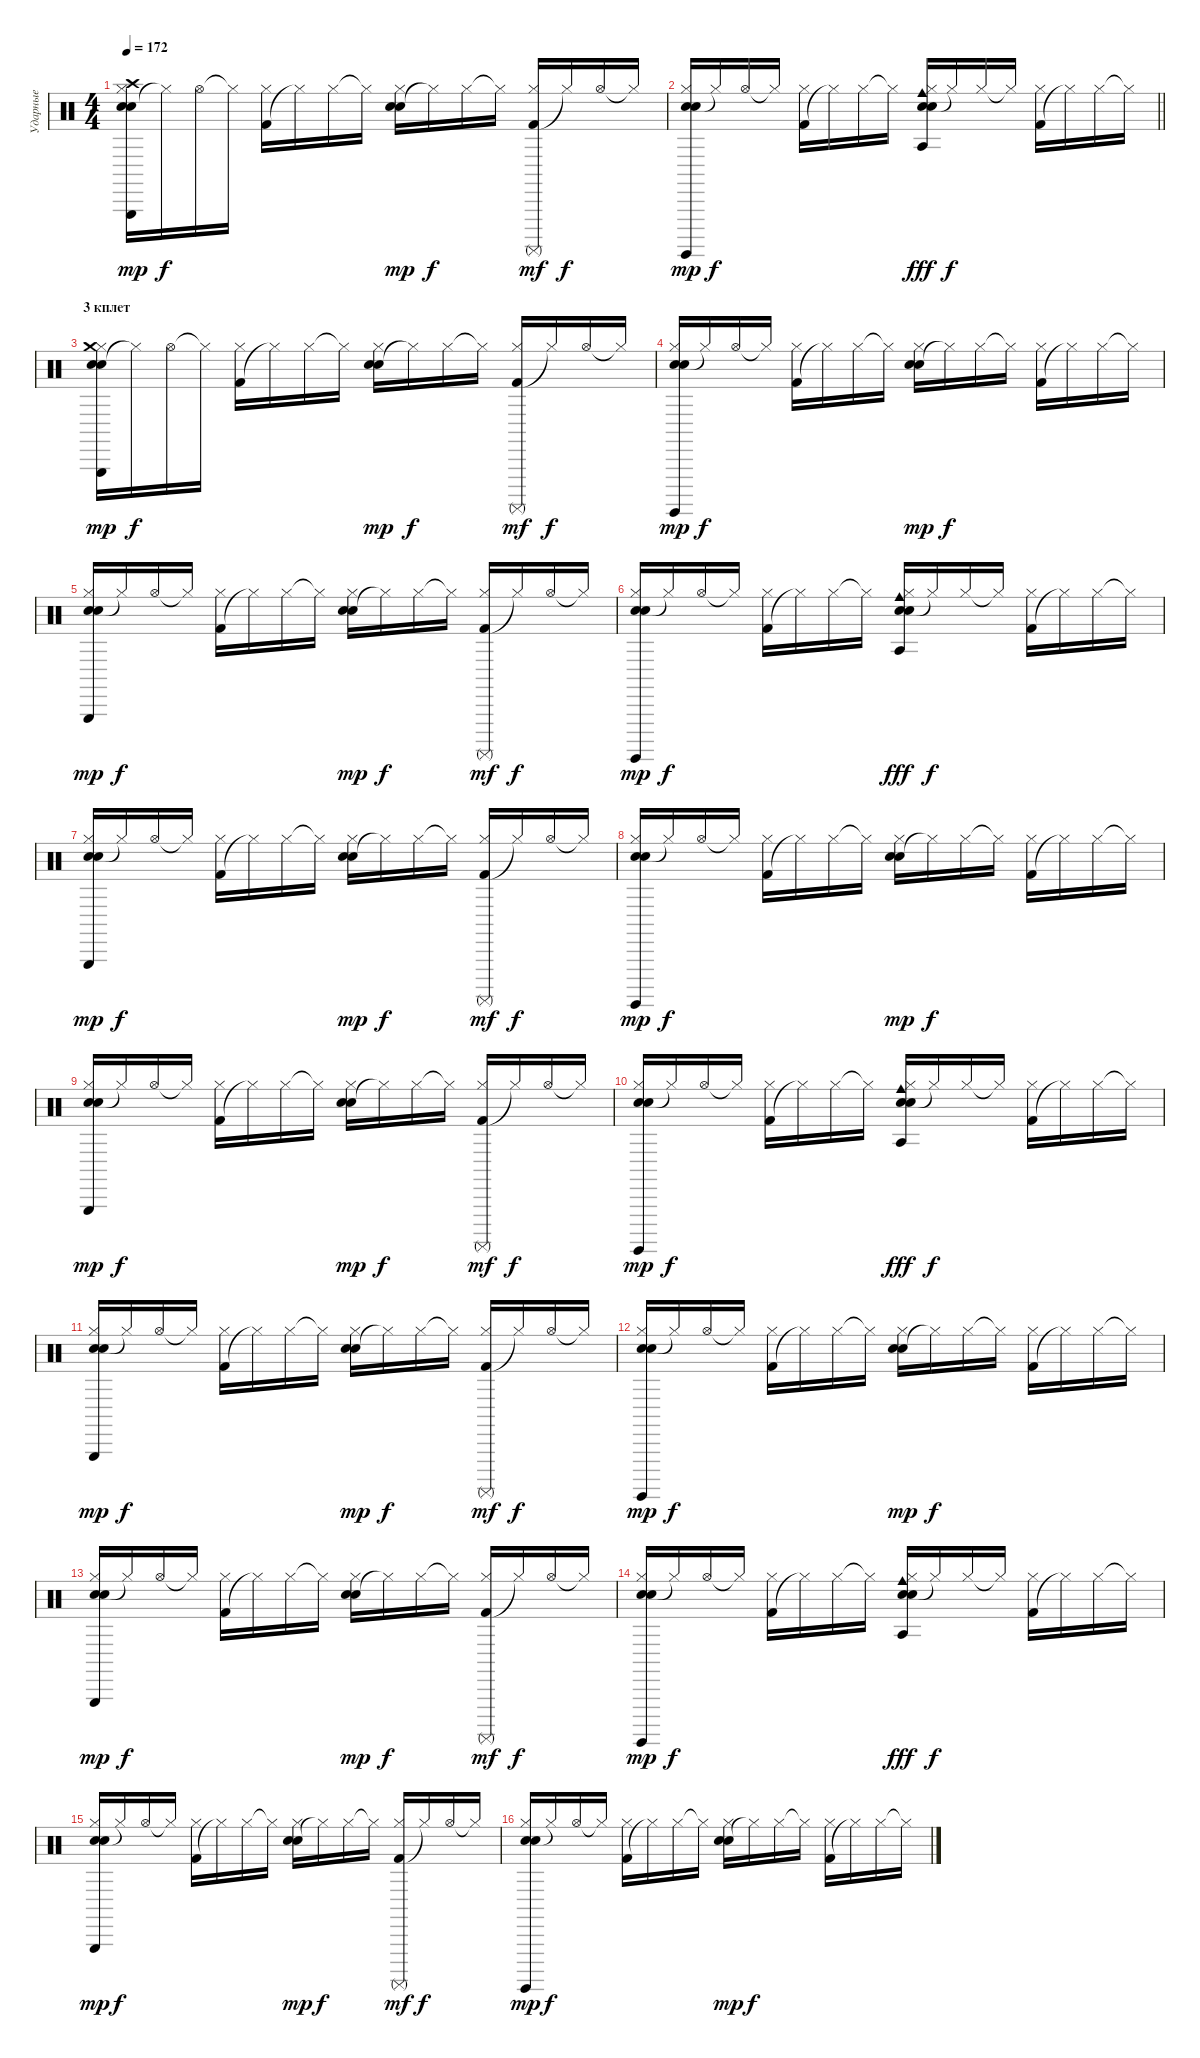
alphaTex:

\track ("Ударные" "Ударные") {instrument percussion}
\staff {score}
\articulation defaults
\ts (4 4)
\tempo 172
\clef neutral
\ks c
("Snare (hit) 2" "Electric Snare (hit)" "Hi-Hat (closed)" "Triangle (hit)" "Crash high (hit)").16{dy mp} "Hi-Hat (closed)"{t}.16{dy f} "Hi-Hat (open)".16 "Hi-Hat (closed)"{t}.16 ("Kick (hit) 2" "Hi-Hat (closed)").16 "Hi-Hat (closed)"{t}.16 "Hi-Hat (closed)".16 "Hi-Hat (closed)"{t}.16 ("Snare (hit) 2" "Electric Snare (hit)" "Hi-Hat (closed)").16{dy mp} "Hi-Hat (closed)"{t}.16{dy f} "Hi-Hat (closed)".16 "Hi-Hat (closed)"{t}.16 ("Kick (hit) 2" "Hi-Hat (closed)" "Surdo (mute)").16{dy mf} "Hi-Hat (closed)"{t}.16{dy f} "Hi-Hat (open)".16 "Hi-Hat (closed)"{t}.16 |
\barLineRight lightlight
("Snare (hit) 2" "Electric Snare (hit)" "Hi-Hat (closed)" "Surdo (hit)").16{dy mp} "Hi-Hat (closed)"{t}.16{dy f} "Hi-Hat (open)".16 "Hi-Hat (closed)"{t}.16 ("Kick (hit) 2" "Hi-Hat (closed)").16 "Hi-Hat (closed)"{t}.16 "Hi-Hat (closed)".16 "Hi-Hat (closed)"{t}.16 ("Snare (hit) 2" "Electric Snare (hit)" "Hi-Hat (closed)" "Cowbell medium (hit)" "Agogo tow (hit)").16{dy fff} "Hi-Hat (closed)"{t}.16{dy f} "Hi-Hat (closed)".16 "Hi-Hat (closed)"{t}.16 ("Kick (hit) 2" "Hi-Hat (closed)").16 "Hi-Hat (closed)"{t}.16 "Hi-Hat (closed)".16 "Hi-Hat (closed)"{t}.16 |
\section ("" "3 кплет")
("Snare (hit) 2" "Electric Snare (hit)" "Hi-Hat (closed)" "Triangle (hit)" "Crash medium (hit)").16{dy mp} "Hi-Hat (closed)"{t}.16{dy f} "Hi-Hat (open)".16 "Hi-Hat (closed)"{t}.16 ("Kick (hit) 2" "Hi-Hat (closed)").16 "Hi-Hat (closed)"{t}.16 "Hi-Hat (closed)".16 "Hi-Hat (closed)"{t}.16 ("Snare (hit) 2" "Electric Snare (hit)" "Hi-Hat (closed)").16{dy mp} "Hi-Hat (closed)"{t}.16{dy f} "Hi-Hat (closed)".16 "Hi-Hat (closed)"{t}.16 ("Kick (hit) 2" "Hi-Hat (closed)" "Surdo (mute)").16{dy mf} "Hi-Hat (closed)"{t}.16{dy f} "Hi-Hat (open)".16 "Hi-Hat (closed)"{t}.16 |
("Snare (hit) 2" "Electric Snare (hit)" "Hi-Hat (closed)" "Surdo (hit)").16{dy mp} "Hi-Hat (closed)"{t}.16{dy f} "Hi-Hat (open)".16 "Hi-Hat (closed)"{t}.16 ("Kick (hit) 2" "Hi-Hat (closed)").16 "Hi-Hat (closed)"{t}.16 "Hi-Hat (closed)".16 "Hi-Hat (closed)"{t}.16 ("Snare (hit) 2" "Electric Snare (hit)" "Hi-Hat (closed)").16{dy mp} "Hi-Hat (closed)"{t}.16{dy f} "Hi-Hat (closed)".16 "Hi-Hat (closed)"{t}.16 ("Kick (hit) 2" "Hi-Hat (closed)").16 "Hi-Hat (closed)"{t}.16 "Hi-Hat (closed)".16 "Hi-Hat (closed)"{t}.16 |
("Snare (hit) 2" "Electric Snare (hit)" "Hi-Hat (closed)" "Triangle (hit)").16{dy mp} "Hi-Hat (closed)"{t}.16{dy f} "Hi-Hat (open)".16 "Hi-Hat (closed)"{t}.16 ("Kick (hit) 2" "Hi-Hat (closed)").16 "Hi-Hat (closed)"{t}.16 "Hi-Hat (closed)".16 "Hi-Hat (closed)"{t}.16 ("Snare (hit) 2" "Electric Snare (hit)" "Hi-Hat (closed)").16{dy mp} "Hi-Hat (closed)"{t}.16{dy f} "Hi-Hat (closed)".16 "Hi-Hat (closed)"{t}.16 ("Kick (hit) 2" "Hi-Hat (closed)" "Surdo (mute)").16{dy mf} "Hi-Hat (closed)"{t}.16{dy f} "Hi-Hat (open)".16 "Hi-Hat (closed)"{t}.16 |
("Snare (hit) 2" "Electric Snare (hit)" "Hi-Hat (closed)" "Surdo (hit)").16{dy mp} "Hi-Hat (closed)"{t}.16{dy f} "Hi-Hat (open)".16 "Hi-Hat (closed)"{t}.16 ("Kick (hit) 2" "Hi-Hat (closed)").16 "Hi-Hat (closed)"{t}.16 "Hi-Hat (closed)".16 "Hi-Hat (closed)"{t}.16 ("Snare (hit) 2" "Electric Snare (hit)" "Hi-Hat (closed)" "Cowbell medium (hit)" "Agogo tow (hit)").16{dy fff} "Hi-Hat (closed)"{t}.16{dy f} "Hi-Hat (closed)".16 "Hi-Hat (closed)"{t}.16 ("Kick (hit) 2" "Hi-Hat (closed)").16 "Hi-Hat (closed)"{t}.16 "Hi-Hat (closed)".16 "Hi-Hat (closed)"{t}.16 |
("Snare (hit) 2" "Electric Snare (hit)" "Hi-Hat (closed)" "Triangle (hit)").16{dy mp} "Hi-Hat (closed)"{t}.16{dy f} "Hi-Hat (open)".16 "Hi-Hat (closed)"{t}.16 ("Kick (hit) 2" "Hi-Hat (closed)").16 "Hi-Hat (closed)"{t}.16 "Hi-Hat (closed)".16 "Hi-Hat (closed)"{t}.16 ("Snare (hit) 2" "Electric Snare (hit)" "Hi-Hat (closed)").16{dy mp} "Hi-Hat (closed)"{t}.16{dy f} "Hi-Hat (closed)".16 "Hi-Hat (closed)"{t}.16 ("Kick (hit) 2" "Hi-Hat (closed)" "Surdo (mute)").16{dy mf} "Hi-Hat (closed)"{t}.16{dy f} "Hi-Hat (open)".16 "Hi-Hat (closed)"{t}.16 |
("Snare (hit) 2" "Electric Snare (hit)" "Hi-Hat (closed)" "Surdo (hit)").16{dy mp} "Hi-Hat (closed)"{t}.16{dy f} "Hi-Hat (open)".16 "Hi-Hat (closed)"{t}.16 ("Kick (hit) 2" "Hi-Hat (closed)").16 "Hi-Hat (closed)"{t}.16 "Hi-Hat (closed)".16 "Hi-Hat (closed)"{t}.16 ("Snare (hit) 2" "Electric Snare (hit)" "Hi-Hat (closed)").16{dy mp} "Hi-Hat (closed)"{t}.16{dy f} "Hi-Hat (closed)".16 "Hi-Hat (closed)"{t}.16 ("Kick (hit) 2" "Hi-Hat (closed)").16 "Hi-Hat (closed)"{t}.16 "Hi-Hat (closed)".16 "Hi-Hat (closed)"{t}.16 |
("Snare (hit) 2" "Electric Snare (hit)" "Hi-Hat (closed)" "Triangle (hit)").16{dy mp} "Hi-Hat (closed)"{t}.16{dy f} "Hi-Hat (open)".16 "Hi-Hat (closed)"{t}.16 ("Kick (hit) 2" "Hi-Hat (closed)").16 "Hi-Hat (closed)"{t}.16 "Hi-Hat (closed)".16 "Hi-Hat (closed)"{t}.16 ("Snare (hit) 2" "Electric Snare (hit)" "Hi-Hat (closed)").16{dy mp} "Hi-Hat (closed)"{t}.16{dy f} "Hi-Hat (closed)".16 "Hi-Hat (closed)"{t}.16 ("Kick (hit) 2" "Hi-Hat (closed)" "Surdo (mute)").16{dy mf} "Hi-Hat (closed)"{t}.16{dy f} "Hi-Hat (open)".16 "Hi-Hat (closed)"{t}.16 |
("Snare (hit) 2" "Electric Snare (hit)" "Hi-Hat (closed)" "Surdo (hit)").16{dy mp} "Hi-Hat (closed)"{t}.16{dy f} "Hi-Hat (open)".16 "Hi-Hat (closed)"{t}.16 ("Kick (hit) 2" "Hi-Hat (closed)").16 "Hi-Hat (closed)"{t}.16 "Hi-Hat (closed)".16 "Hi-Hat (closed)"{t}.16 ("Snare (hit) 2" "Electric Snare (hit)" "Hi-Hat (closed)" "Cowbell medium (hit)" "Agogo tow (hit)").16{dy fff} "Hi-Hat (closed)"{t}.16{dy f} "Hi-Hat (closed)".16 "Hi-Hat (closed)"{t}.16 ("Kick (hit) 2" "Hi-Hat (closed)").16 "Hi-Hat (closed)"{t}.16 "Hi-Hat (closed)".16 "Hi-Hat (closed)"{t}.16 |
("Snare (hit) 2" "Electric Snare (hit)" "Hi-Hat (closed)" "Triangle (hit)").16{dy mp} "Hi-Hat (closed)"{t}.16{dy f} "Hi-Hat (open)".16 "Hi-Hat (closed)"{t}.16 ("Kick (hit) 2" "Hi-Hat (closed)").16 "Hi-Hat (closed)"{t}.16 "Hi-Hat (closed)".16 "Hi-Hat (closed)"{t}.16 ("Snare (hit) 2" "Electric Snare (hit)" "Hi-Hat (closed)").16{dy mp} "Hi-Hat (closed)"{t}.16{dy f} "Hi-Hat (closed)".16 "Hi-Hat (closed)"{t}.16 ("Kick (hit) 2" "Hi-Hat (closed)" "Surdo (mute)").16{dy mf} "Hi-Hat (closed)"{t}.16{dy f} "Hi-Hat (open)".16 "Hi-Hat (closed)"{t}.16 |
("Snare (hit) 2" "Electric Snare (hit)" "Hi-Hat (closed)" "Surdo (hit)").16{dy mp} "Hi-Hat (closed)"{t}.16{dy f} "Hi-Hat (open)".16 "Hi-Hat (closed)"{t}.16 ("Kick (hit) 2" "Hi-Hat (closed)").16 "Hi-Hat (closed)"{t}.16 "Hi-Hat (closed)".16 "Hi-Hat (closed)"{t}.16 ("Snare (hit) 2" "Electric Snare (hit)" "Hi-Hat (closed)").16{dy mp} "Hi-Hat (closed)"{t}.16{dy f} "Hi-Hat (closed)".16 "Hi-Hat (closed)"{t}.16 ("Kick (hit) 2" "Hi-Hat (closed)").16 "Hi-Hat (closed)"{t}.16 "Hi-Hat (closed)".16 "Hi-Hat (closed)"{t}.16 |
("Snare (hit) 2" "Electric Snare (hit)" "Hi-Hat (closed)" "Triangle (hit)").16{dy mp} "Hi-Hat (closed)"{t}.16{dy f} "Hi-Hat (open)".16 "Hi-Hat (closed)"{t}.16 ("Kick (hit) 2" "Hi-Hat (closed)").16 "Hi-Hat (closed)"{t}.16 "Hi-Hat (closed)".16 "Hi-Hat (closed)"{t}.16 ("Snare (hit) 2" "Electric Snare (hit)" "Hi-Hat (closed)").16{dy mp} "Hi-Hat (closed)"{t}.16{dy f} "Hi-Hat (closed)".16 "Hi-Hat (closed)"{t}.16 ("Kick (hit) 2" "Hi-Hat (closed)" "Surdo (mute)").16{dy mf} "Hi-Hat (closed)"{t}.16{dy f} "Hi-Hat (open)".16 "Hi-Hat (closed)"{t}.16 |
("Snare (hit) 2" "Electric Snare (hit)" "Hi-Hat (closed)" "Surdo (hit)").16{dy mp} "Hi-Hat (closed)"{t}.16{dy f} "Hi-Hat (open)".16 "Hi-Hat (closed)"{t}.16 ("Kick (hit) 2" "Hi-Hat (closed)").16 "Hi-Hat (closed)"{t}.16 "Hi-Hat (closed)".16 "Hi-Hat (closed)"{t}.16 ("Snare (hit) 2" "Electric Snare (hit)" "Hi-Hat (closed)" "Cowbell medium (hit)" "Agogo tow (hit)").16{dy fff} "Hi-Hat (closed)"{t}.16{dy f} "Hi-Hat (closed)".16 "Hi-Hat (closed)"{t}.16 ("Kick (hit) 2" "Hi-Hat (closed)").16 "Hi-Hat (closed)"{t}.16 "Hi-Hat (closed)".16 "Hi-Hat (closed)"{t}.16 |
("Snare (hit) 2" "Electric Snare (hit)" "Hi-Hat (closed)" "Triangle (hit)").16{dy mp} "Hi-Hat (closed)"{t}.16{dy f} "Hi-Hat (open)".16 "Hi-Hat (closed)"{t}.16 ("Kick (hit) 2" "Hi-Hat (closed)").16 "Hi-Hat (closed)"{t}.16 "Hi-Hat (closed)".16 "Hi-Hat (closed)"{t}.16 ("Snare (hit) 2" "Electric Snare (hit)" "Hi-Hat (closed)").16{dy mp} "Hi-Hat (closed)"{t}.16{dy f} "Hi-Hat (closed)".16 "Hi-Hat (closed)"{t}.16 ("Kick (hit) 2" "Hi-Hat (closed)" "Surdo (mute)").16{dy mf} "Hi-Hat (closed)"{t}.16{dy f} "Hi-Hat (open)".16 "Hi-Hat (closed)"{t}.16 |
("Snare (hit) 2" "Electric Snare (hit)" "Hi-Hat (closed)" "Surdo (hit)").16{dy mp} "Hi-Hat (closed)"{t}.16{dy f} "Hi-Hat (open)".16 "Hi-Hat (closed)"{t}.16 ("Kick (hit) 2" "Hi-Hat (closed)").16 "Hi-Hat (closed)"{t}.16 "Hi-Hat (closed)".16 "Hi-Hat (closed)"{t}.16 ("Snare (hit) 2" "Electric Snare (hit)" "Hi-Hat (closed)").16{dy mp} "Hi-Hat (closed)"{t}.16{dy f} "Hi-Hat (closed)".16 "Hi-Hat (closed)"{t}.16 ("Kick (hit) 2" "Hi-Hat (closed)").16 "Hi-Hat (closed)"{t}.16 "Hi-Hat (closed)".16 "Hi-Hat (closed)"{t}.16
